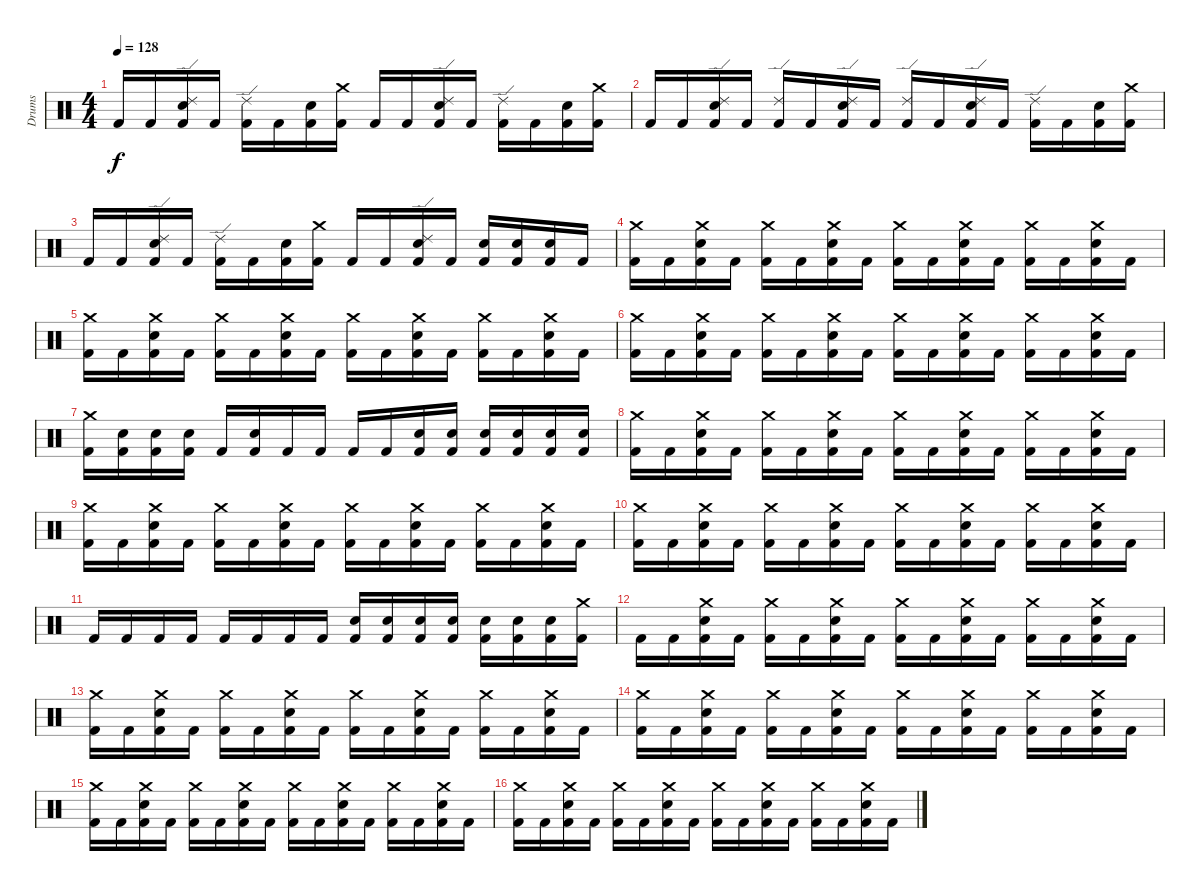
\track ("Drums" "Drums") {instrument percussion}
\staff {score}
\articulation defaults
\ts (4 4)
\tempo 128
\clef neutral
\ks c "Kick (hit) 2".16{dy f} "Kick (hit) 2".16
("Ride (edge) 2" "Snare (hit) 2" "Kick (hit) 2").16 "Kick (hit) 2".16 ("Ride (edge) 2" "Kick (hit) 2").16 "Kick (hit) 2".16 ("Snare (hit) 2" "Kick (hit) 2").16 ("Crash medium (hit)" "Kick (hit) 2").16 "Kick (hit) 2".16 "Kick (hit) 2".16 ("Ride (edge) 2" "Snare (hit) 2" "Kick (hit) 2").16 "Kick (hit) 2".16 ("Ride (edge) 2" "Kick (hit) 2").16 "Kick (hit) 2".16 ("Snare (hit) 2" "Kick (hit) 2").16 ("Crash medium (hit)" "Kick (hit) 2").16 |
"Kick (hit) 2".16 "Kick (hit) 2".16 ("Ride (edge) 2" "Snare (hit) 2" "Kick (hit) 2").16 "Kick (hit) 2".16 ("Ride (edge) 2" "Kick (hit) 2").16 "Kick (hit) 2".16 ("Ride (edge) 2" "Snare (hit) 2" "Kick (hit) 2").16 "Kick (hit) 2".16 ("Ride (edge) 2" "Kick (hit) 2").16 "Kick (hit) 2".16 ("Ride (edge) 2" "Snare (hit) 2" "Kick (hit) 2").16 "Kick (hit) 2".16 ("Ride (edge) 2" "Kick (hit) 2").16 "Kick (hit) 2".16 ("Snare (hit) 2" "Kick (hit) 2").16 ("Crash medium (hit)" "Kick (hit) 2").16 |
"Kick (hit) 2".16 "Kick (hit) 2".16 ("Ride (edge) 2" "Snare (hit) 2" "Kick (hit) 2").16 "Kick (hit) 2".16 ("Ride (edge) 2" "Kick (hit) 2").16 "Kick (hit) 2".16 ("Snare (hit) 2" "Kick (hit) 2").16 ("Crash medium (hit)" "Kick (hit) 2").16 "Kick (hit) 2".16 "Kick (hit) 2".16 ("Ride (edge) 2" "Snare (hit) 2" "Kick (hit) 2").16 "Kick (hit) 2".16 ("Snare (hit) 2" "Kick (hit) 2").16 ("Snare (hit) 2" "Kick (hit) 2").16 ("Snare (hit) 2" "Kick (hit) 2").16 "Kick (hit) 2".16 |
("Crash medium (hit)" "Kick (hit) 2").16 "Kick (hit) 2".16 ("Crash medium (hit)" "Snare (hit) 2" "Kick (hit) 2").16 "Kick (hit) 2".16 ("Crash medium (hit)" "Kick (hit) 2").16 "Kick (hit) 2".16 ("Crash medium (hit)" "Snare (hit) 2" "Kick (hit) 2").16 "Kick (hit) 2".16 ("Crash medium (hit)" "Kick (hit) 2").16 "Kick (hit) 2".16 ("Crash medium (hit)" "Snare (hit) 2" "Kick (hit) 2").16 "Kick (hit) 2".16 ("Crash medium (hit)" "Kick (hit) 2").16 "Kick (hit) 2".16 ("Crash medium (hit)" "Snare (hit) 2" "Kick (hit) 2").16 "Kick (hit) 2".16 |
("Crash medium (hit)" "Kick (hit) 2").16 "Kick (hit) 2".16 ("Crash medium (hit)" "Snare (hit) 2" "Kick (hit) 2").16 "Kick (hit) 2".16 ("Crash medium (hit)" "Kick (hit) 2").16 "Kick (hit) 2".16 ("Crash medium (hit)" "Snare (hit) 2" "Kick (hit) 2").16 "Kick (hit) 2".16 ("Crash medium (hit)" "Kick (hit) 2").16 "Kick (hit) 2".16 ("Crash medium (hit)" "Snare (hit) 2" "Kick (hit) 2").16 "Kick (hit) 2".16 ("Crash medium (hit)" "Kick (hit) 2").16 "Kick (hit) 2".16 ("Crash medium (hit)" "Snare (hit) 2" "Kick (hit) 2").16 "Kick (hit) 2".16 |
("Crash medium (hit)" "Kick (hit) 2").16 "Kick (hit) 2".16 ("Crash medium (hit)" "Snare (hit) 2" "Kick (hit) 2").16 "Kick (hit) 2".16 ("Crash medium (hit)" "Kick (hit) 2").16 "Kick (hit) 2".16 ("Crash medium (hit)" "Snare (hit) 2" "Kick (hit) 2").16 "Kick (hit) 2".16 ("Crash medium (hit)" "Kick (hit) 2").16 "Kick (hit) 2".16 ("Crash medium (hit)" "Snare (hit) 2" "Kick (hit) 2").16 "Kick (hit) 2".16 ("Crash medium (hit)" "Kick (hit) 2").16 "Kick (hit) 2".16 ("Crash medium (hit)" "Snare (hit) 2" "Kick (hit) 2").16 "Kick (hit) 2".16 |
("Crash medium (hit)" "Kick (hit) 2").16 ("Snare (hit) 2" "Kick (hit) 2").16 ("Snare (hit) 2" "Kick (hit) 2").16 ("Snare (hit) 2" "Kick (hit) 2").16 "Kick (hit) 2".16 ("Snare (hit) 2" "Kick (hit) 2").16 "Kick (hit) 2".16 "Kick (hit) 2".16 "Kick (hit) 2".16 "Kick (hit) 2".16 ("Snare (hit) 2" "Kick (hit) 2").16 ("Snare (hit) 2" "Kick (hit) 2").16 ("Snare (hit) 2" "Kick (hit) 2").16 ("Snare (hit) 2" "Kick (hit) 2").16 ("Snare (hit) 2" "Kick (hit) 2").16 ("Snare (hit) 2" "Kick (hit) 2").16 |
("Crash medium (hit)" "Kick (hit) 2").16 "Kick (hit) 2".16 ("Crash medium (hit)" "Snare (hit) 2" "Kick (hit) 2").16 "Kick (hit) 2".16 ("Crash medium (hit)" "Kick (hit) 2").16 "Kick (hit) 2".16 ("Crash medium (hit)" "Snare (hit) 2" "Kick (hit) 2").16 "Kick (hit) 2".16 ("Crash medium (hit)" "Kick (hit) 2").16 "Kick (hit) 2".16 ("Crash medium (hit)" "Snare (hit) 2" "Kick (hit) 2").16 "Kick (hit) 2".16 ("Crash medium (hit)" "Kick (hit) 2").16 "Kick (hit) 2".16 ("Crash medium (hit)" "Snare (hit) 2" "Kick (hit) 2").16 "Kick (hit) 2".16 |
("Crash medium (hit)" "Kick (hit) 2").16 "Kick (hit) 2".16 ("Crash medium (hit)" "Snare (hit) 2" "Kick (hit) 2").16 "Kick (hit) 2".16 ("Crash medium (hit)" "Kick (hit) 2").16 "Kick (hit) 2".16 ("Crash medium (hit)" "Snare (hit) 2" "Kick (hit) 2").16 "Kick (hit) 2".16 ("Crash medium (hit)" "Kick (hit) 2").16 "Kick (hit) 2".16 ("Crash medium (hit)" "Snare (hit) 2" "Kick (hit) 2").16 "Kick (hit) 2".16 ("Crash medium (hit)" "Kick (hit) 2").16 "Kick (hit) 2".16 ("Crash medium (hit)" "Snare (hit) 2" "Kick (hit) 2").16 "Kick (hit) 2".16 |
("Crash medium (hit)" "Kick (hit) 2").16 "Kick (hit) 2".16 ("Crash medium (hit)" "Snare (hit) 2" "Kick (hit) 2").16 "Kick (hit) 2".16 ("Crash medium (hit)" "Kick (hit) 2").16 "Kick (hit) 2".16 ("Crash medium (hit)" "Snare (hit) 2" "Kick (hit) 2").16 "Kick (hit) 2".16 ("Crash medium (hit)" "Kick (hit) 2").16 "Kick (hit) 2".16 ("Crash medium (hit)" "Snare (hit) 2" "Kick (hit) 2").16 "Kick (hit) 2".16 ("Crash medium (hit)" "Kick (hit) 2").16 "Kick (hit) 2".16 ("Crash medium (hit)" "Snare (hit) 2" "Kick (hit) 2").16 "Kick (hit) 2".16 |
"Kick (hit) 2".16 "Kick (hit) 2".16 "Kick (hit) 2".16 "Kick (hit) 2".16 "Kick (hit) 2".16 "Kick (hit) 2".16 "Kick (hit) 2".16 "Kick (hit) 2".16 ("Snare (hit) 2" "Kick (hit) 2").16 ("Snare (hit) 2" "Kick (hit) 2").16 ("Snare (hit) 2" "Kick (hit) 2").16 ("Snare (hit) 2" "Kick (hit) 2").16 ("Snare (hit) 2" "Kick (hit) 2").16 ("Snare (hit) 2" "Kick (hit) 2").16 ("Snare (hit) 2" "Kick (hit) 2").16 ("Crash medium (hit)" "Kick (hit) 2").16 |
"Kick (hit) 2".16 "Kick (hit) 2".16 ("Crash medium (hit)" "Snare (hit) 2" "Kick (hit) 2").16 "Kick (hit) 2".16 ("Crash medium (hit)" "Kick (hit) 2").16 "Kick (hit) 2".16 ("Crash medium (hit)" "Snare (hit) 2" "Kick (hit) 2").16 "Kick (hit) 2".16 ("Crash medium (hit)" "Kick (hit) 2").16 "Kick (hit) 2".16 ("Crash medium (hit)" "Snare (hit) 2" "Kick (hit) 2").16 "Kick (hit) 2".16 ("Crash medium (hit)" "Kick (hit) 2").16 "Kick (hit) 2".16 ("Crash medium (hit)" "Snare (hit) 2" "Kick (hit) 2").16 "Kick (hit) 2".16 |
("Crash medium (hit)" "Kick (hit) 2").16 "Kick (hit) 2".16 ("Crash medium (hit)" "Snare (hit) 2" "Kick (hit) 2").16 "Kick (hit) 2".16 ("Crash medium (hit)" "Kick (hit) 2").16 "Kick (hit) 2".16 ("Crash medium (hit)" "Snare (hit) 2" "Kick (hit) 2").16 "Kick (hit) 2".16 ("Crash medium (hit)" "Kick (hit) 2").16 "Kick (hit) 2".16 ("Crash medium (hit)" "Snare (hit) 2" "Kick (hit) 2").16 "Kick (hit) 2".16 ("Crash medium (hit)" "Kick (hit) 2").16 "Kick (hit) 2".16 ("Crash medium (hit)" "Snare (hit) 2" "Kick (hit) 2").16 "Kick (hit) 2".16 |
("Crash medium (hit)" "Kick (hit) 2").16 "Kick (hit) 2".16 ("Crash medium (hit)" "Snare (hit) 2" "Kick (hit) 2").16 "Kick (hit) 2".16 ("Crash medium (hit)" "Kick (hit) 2").16 "Kick (hit) 2".16 ("Crash medium (hit)" "Snare (hit) 2" "Kick (hit) 2").16 "Kick (hit) 2".16 ("Crash medium (hit)" "Kick (hit) 2").16 "Kick (hit) 2".16 ("Crash medium (hit)" "Snare (hit) 2" "Kick (hit) 2").16 "Kick (hit) 2".16 ("Crash medium (hit)" "Kick (hit) 2").16 "Kick (hit) 2".16 ("Crash medium (hit)" "Snare (hit) 2" "Kick (hit) 2").16 "Kick (hit) 2".16 |
("Crash medium (hit)" "Kick (hit) 2").16 "Kick (hit) 2".16 ("Crash medium (hit)" "Snare (hit) 2" "Kick (hit) 2").16 "Kick (hit) 2".16 ("Crash medium (hit)" "Kick (hit) 2").16 "Kick (hit) 2".16 ("Crash medium (hit)" "Snare (hit) 2" "Kick (hit) 2").16 "Kick (hit) 2".16 ("Crash medium (hit)" "Kick (hit) 2").16 "Kick (hit) 2".16 ("Crash medium (hit)" "Snare (hit) 2" "Kick (hit) 2").16 "Kick (hit) 2".16 ("Crash medium (hit)" "Kick (hit) 2").16 "Kick (hit) 2".16 ("Crash medium (hit)" "Snare (hit) 2" "Kick (hit) 2").16 "Kick (hit) 2".16 |
("Crash medium (hit)" "Kick (hit) 2").16 "Kick (hit) 2".16 ("Crash medium (hit)" "Snare (hit) 2" "Kick (hit) 2").16 "Kick (hit) 2".16 ("Crash medium (hit)" "Kick (hit) 2").16 "Kick (hit) 2".16 ("Crash medium (hit)" "Snare (hit) 2" "Kick (hit) 2").16 "Kick (hit) 2".16 ("Crash medium (hit)" "Kick (hit) 2").16 "Kick (hit) 2".16 ("Crash medium (hit)" "Snare (hit) 2" "Kick (hit) 2").16 "Kick (hit) 2".16 ("Crash medium (hit)" "Kick (hit) 2").16 "Kick (hit) 2".16 ("Crash medium (hit)" "Snare (hit) 2" "Kick (hit) 2").16 "Kick (hit) 2".16
